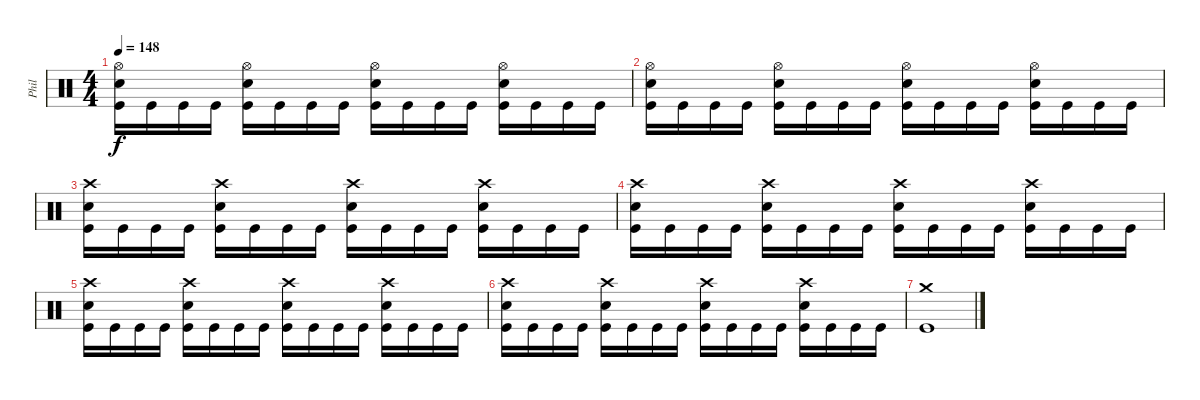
\track ("Phil" "Phil") {instrument percussion}
\staff {score}
\articulation defaults
\ts (4 4)
\tempo 148
\clef neutral
\ks c
("Hi-Hat (open)" "Electric Snare (hit)" "Kick (hit)").16{dy f} "Kick (hit)".16 "Kick (hit)".16 "Kick (hit)".16 ("Hi-Hat (open)" "Electric Snare (hit)" "Kick (hit)").16 "Kick (hit)".16 "Kick (hit)".16 "Kick (hit)".16 ("Hi-Hat (open)" "Electric Snare (hit)" "Kick (hit)").16 "Kick (hit)".16 "Kick (hit)".16 "Kick (hit)".16 ("Hi-Hat (open)" "Electric Snare (hit)" "Kick (hit)").16 "Kick (hit)".16 "Kick (hit)".16 "Kick (hit)".16 |
("Hi-Hat (open)" "Electric Snare (hit)" "Kick (hit)").16 "Kick (hit)".16 "Kick (hit)".16 "Kick (hit)".16 ("Hi-Hat (open)" "Electric Snare (hit)" "Kick (hit)").16 "Kick (hit)".16 "Kick (hit)".16 "Kick (hit)".16 ("Hi-Hat (open)" "Electric Snare (hit)" "Kick (hit)").16 "Kick (hit)".16 "Kick (hit)".16 "Kick (hit)".16 ("Hi-Hat (open)" "Electric Snare (hit)" "Kick (hit)").16 "Kick (hit)".16 "Kick (hit)".16 "Kick (hit)".16 |
("Crash high (hit)" "Electric Snare (hit)" "Kick (hit)").16 "Kick (hit)".16 "Kick (hit)".16 "Kick (hit)".16 ("Crash high (hit)" "Electric Snare (hit)" "Kick (hit)").16 "Kick (hit)".16 "Kick (hit)".16 "Kick (hit)".16 ("Crash high (hit)" "Electric Snare (hit)" "Kick (hit)").16 "Kick (hit)".16 "Kick (hit)".16 "Kick (hit)".16 ("Crash high (hit)" "Electric Snare (hit)" "Kick (hit)").16 "Kick (hit)".16 "Kick (hit)".16 "Kick (hit)".16 |
("Crash high (hit)" "Electric Snare (hit)" "Kick (hit)").16 "Kick (hit)".16 "Kick (hit)".16 "Kick (hit)".16 ("Crash high (hit)" "Electric Snare (hit)" "Kick (hit)").16 "Kick (hit)".16 "Kick (hit)".16 "Kick (hit)".16 ("Crash high (hit)" "Electric Snare (hit)" "Kick (hit)").16 "Kick (hit)".16 "Kick (hit)".16 "Kick (hit)".16 ("Crash high (hit)" "Electric Snare (hit)" "Kick (hit)").16 "Kick (hit)".16 "Kick (hit)".16 "Kick (hit)".16 |
("Crash high (hit)" "Electric Snare (hit)" "Kick (hit)").16 "Kick (hit)".16 "Kick (hit)".16 "Kick (hit)".16 ("Crash high (hit)" "Electric Snare (hit)" "Kick (hit)").16 "Kick (hit)".16 "Kick (hit)".16 "Kick (hit)".16 ("Crash high (hit)" "Electric Snare (hit)" "Kick (hit)").16 "Kick (hit)".16 "Kick (hit)".16 "Kick (hit)".16 ("Crash high (hit)" "Electric Snare (hit)" "Kick (hit)").16 "Kick (hit)".16 "Kick (hit)".16 "Kick (hit)".16 |
("Crash high (hit)" "Electric Snare (hit)" "Kick (hit)").16 "Kick (hit)".16 "Kick (hit)".16 "Kick (hit)".16 ("Crash high (hit)" "Electric Snare (hit)" "Kick (hit)").16 "Kick (hit)".16 "Kick (hit)".16 "Kick (hit)".16 ("Crash high (hit)" "Electric Snare (hit)" "Kick (hit)").16 "Kick (hit)".16 "Kick (hit)".16 "Kick (hit)".16 ("Crash high (hit)" "Electric Snare (hit)" "Kick (hit)").16 "Kick (hit)".16 "Kick (hit)".16 "Kick (hit)".16 |
("Crash medium (hit)" "Kick (hit)").1
